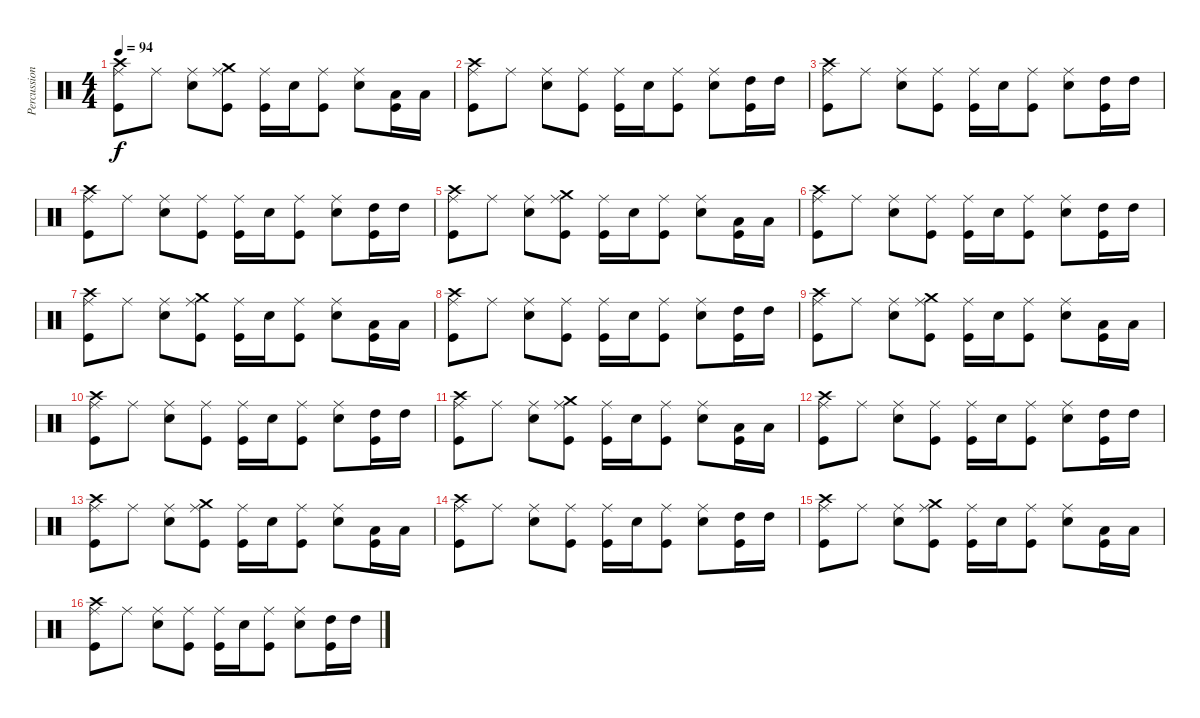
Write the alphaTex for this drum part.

\track ("Percussions" "Percussion") {instrument percussion}
\staff {score}
\articulation defaults
\ts (4 4)
\tempo 94
\clef neutral
\ks c
("Kick (hit)" "Crash high (hit)" "Ride (middle)").8{dy f} "Ride (middle)".8 ("Electric Snare (hit)" "Ride (middle)").8 ("Crash medium (hit)" "Kick (hit)" "Ride (middle)").8 ("Kick (hit)" "Ride (middle)").16 "Electric Snare (hit)".16 ("Kick (hit)" "Ride (middle)").8 ("Electric Snare (hit)" "Ride (middle)").8 ("Low Floor Tom (hit)" "Kick (hit)").16 "Low Floor Tom (hit)".16 |
("Kick (hit)" "Crash high (hit)" "Ride (middle)").8 "Ride (middle)".8 ("Electric Snare (hit)" "Ride (middle)").8 ("Kick (hit)" "Ride (middle)").8 ("Kick (hit)" "Ride (middle)").16 "Electric Snare (hit)".16 ("Kick (hit)" "Ride (middle)").8 ("Electric Snare (hit)" "Ride (middle)").8 ("High Tom (hit)" "Kick (hit)").16 "High Tom (hit)".16 |
("Kick (hit)" "Crash high (hit)" "Ride (middle)").8 "Ride (middle)".8 ("Electric Snare (hit)" "Ride (middle)").8 ("Kick (hit)" "Ride (middle)").8 ("Kick (hit)" "Ride (middle)").16 "Electric Snare (hit)".16 ("Kick (hit)" "Ride (middle)").8 ("Electric Snare (hit)" "Ride (middle)").8 ("High Tom (hit)" "Kick (hit)").16 "High Tom (hit)".16 |
("Kick (hit)" "Crash high (hit)" "Ride (middle)").8 "Ride (middle)".8 ("Electric Snare (hit)" "Ride (middle)").8 ("Kick (hit)" "Ride (middle)").8 ("Kick (hit)" "Ride (middle)").16 "Electric Snare (hit)".16 ("Kick (hit)" "Ride (middle)").8 ("Electric Snare (hit)" "Ride (middle)").8 ("High Tom (hit)" "Kick (hit)").16 "High Tom (hit)".16 |
("Kick (hit)" "Crash high (hit)" "Ride (middle)").8 "Ride (middle)".8 ("Electric Snare (hit)" "Ride (middle)").8 ("Crash medium (hit)" "Kick (hit)" "Ride (middle)").8 ("Kick (hit)" "Ride (middle)").16 "Electric Snare (hit)".16 ("Kick (hit)" "Ride (middle)").8 ("Electric Snare (hit)" "Ride (middle)").8 ("Low Floor Tom (hit)" "Kick (hit)").16 "Low Floor Tom (hit)".16 |
("Kick (hit)" "Crash high (hit)" "Ride (middle)").8 "Ride (middle)".8 ("Electric Snare (hit)" "Ride (middle)").8 ("Kick (hit)" "Ride (middle)").8 ("Kick (hit)" "Ride (middle)").16 "Electric Snare (hit)".16 ("Kick (hit)" "Ride (middle)").8 ("Electric Snare (hit)" "Ride (middle)").8 ("High Tom (hit)" "Kick (hit)").16 "High Tom (hit)".16 |
("Kick (hit)" "Crash high (hit)" "Ride (middle)").8 "Ride (middle)".8 ("Electric Snare (hit)" "Ride (middle)").8 ("Crash medium (hit)" "Kick (hit)" "Ride (middle)").8 ("Kick (hit)" "Ride (middle)").16 "Electric Snare (hit)".16 ("Kick (hit)" "Ride (middle)").8 ("Electric Snare (hit)" "Ride (middle)").8 ("Low Floor Tom (hit)" "Kick (hit)").16 "Low Floor Tom (hit)".16 |
("Kick (hit)" "Crash high (hit)" "Ride (middle)").8 "Ride (middle)".8 ("Electric Snare (hit)" "Ride (middle)").8 ("Kick (hit)" "Ride (middle)").8 ("Kick (hit)" "Ride (middle)").16 "Electric Snare (hit)".16 ("Kick (hit)" "Ride (middle)").8 ("Electric Snare (hit)" "Ride (middle)").8 ("High Tom (hit)" "Kick (hit)").16 "High Tom (hit)".16 |
("Kick (hit)" "Crash high (hit)" "Ride (middle)").8 "Ride (middle)".8 ("Electric Snare (hit)" "Ride (middle)").8 ("Crash medium (hit)" "Kick (hit)" "Ride (middle)").8 ("Kick (hit)" "Ride (middle)").16 "Electric Snare (hit)".16 ("Kick (hit)" "Ride (middle)").8 ("Electric Snare (hit)" "Ride (middle)").8 ("Low Floor Tom (hit)" "Kick (hit)").16 "Low Floor Tom (hit)".16 |
("Kick (hit)" "Crash high (hit)" "Ride (middle)").8 "Ride (middle)".8 ("Electric Snare (hit)" "Ride (middle)").8 ("Kick (hit)" "Ride (middle)").8 ("Kick (hit)" "Ride (middle)").16 "Electric Snare (hit)".16 ("Kick (hit)" "Ride (middle)").8 ("Electric Snare (hit)" "Ride (middle)").8 ("High Tom (hit)" "Kick (hit)").16 "High Tom (hit)".16 |
("Kick (hit)" "Crash high (hit)" "Ride (middle)").8 "Ride (middle)".8 ("Electric Snare (hit)" "Ride (middle)").8 ("Crash medium (hit)" "Kick (hit)" "Ride (middle)").8 ("Kick (hit)" "Ride (middle)").16 "Electric Snare (hit)".16 ("Kick (hit)" "Ride (middle)").8 ("Electric Snare (hit)" "Ride (middle)").8 ("Low Floor Tom (hit)" "Kick (hit)").16 "Low Floor Tom (hit)".16 |
("Kick (hit)" "Crash high (hit)" "Ride (middle)").8 "Ride (middle)".8 ("Electric Snare (hit)" "Ride (middle)").8 ("Kick (hit)" "Ride (middle)").8 ("Kick (hit)" "Ride (middle)").16 "Electric Snare (hit)".16 ("Kick (hit)" "Ride (middle)").8 ("Electric Snare (hit)" "Ride (middle)").8 ("High Tom (hit)" "Kick (hit)").16 "High Tom (hit)".16 |
("Kick (hit)" "Crash high (hit)" "Ride (middle)").8 "Ride (middle)".8 ("Electric Snare (hit)" "Ride (middle)").8 ("Crash medium (hit)" "Kick (hit)" "Ride (middle)").8 ("Kick (hit)" "Ride (middle)").16 "Electric Snare (hit)".16 ("Kick (hit)" "Ride (middle)").8 ("Electric Snare (hit)" "Ride (middle)").8 ("Low Floor Tom (hit)" "Kick (hit)").16 "Low Floor Tom (hit)".16 |
("Kick (hit)" "Crash high (hit)" "Ride (middle)").8 "Ride (middle)".8 ("Electric Snare (hit)" "Ride (middle)").8 ("Kick (hit)" "Ride (middle)").8 ("Kick (hit)" "Ride (middle)").16 "Electric Snare (hit)".16 ("Kick (hit)" "Ride (middle)").8 ("Electric Snare (hit)" "Ride (middle)").8 ("High Tom (hit)" "Kick (hit)").16 "High Tom (hit)".16 |
("Kick (hit)" "Crash high (hit)" "Ride (middle)").8 "Ride (middle)".8 ("Electric Snare (hit)" "Ride (middle)").8 ("Crash medium (hit)" "Kick (hit)" "Ride (middle)").8 ("Kick (hit)" "Ride (middle)").16 "Electric Snare (hit)".16 ("Kick (hit)" "Ride (middle)").8 ("Electric Snare (hit)" "Ride (middle)").8 ("Low Floor Tom (hit)" "Kick (hit)").16 "Low Floor Tom (hit)".16 |
("Kick (hit)" "Crash high (hit)" "Ride (middle)").8 "Ride (middle)".8 ("Electric Snare (hit)" "Ride (middle)").8 ("Kick (hit)" "Ride (middle)").8 ("Kick (hit)" "Ride (middle)").16 "Electric Snare (hit)".16 ("Kick (hit)" "Ride (middle)").8 ("Electric Snare (hit)" "Ride (middle)").8 ("High Tom (hit)" "Kick (hit)").16 "High Tom (hit)".16
